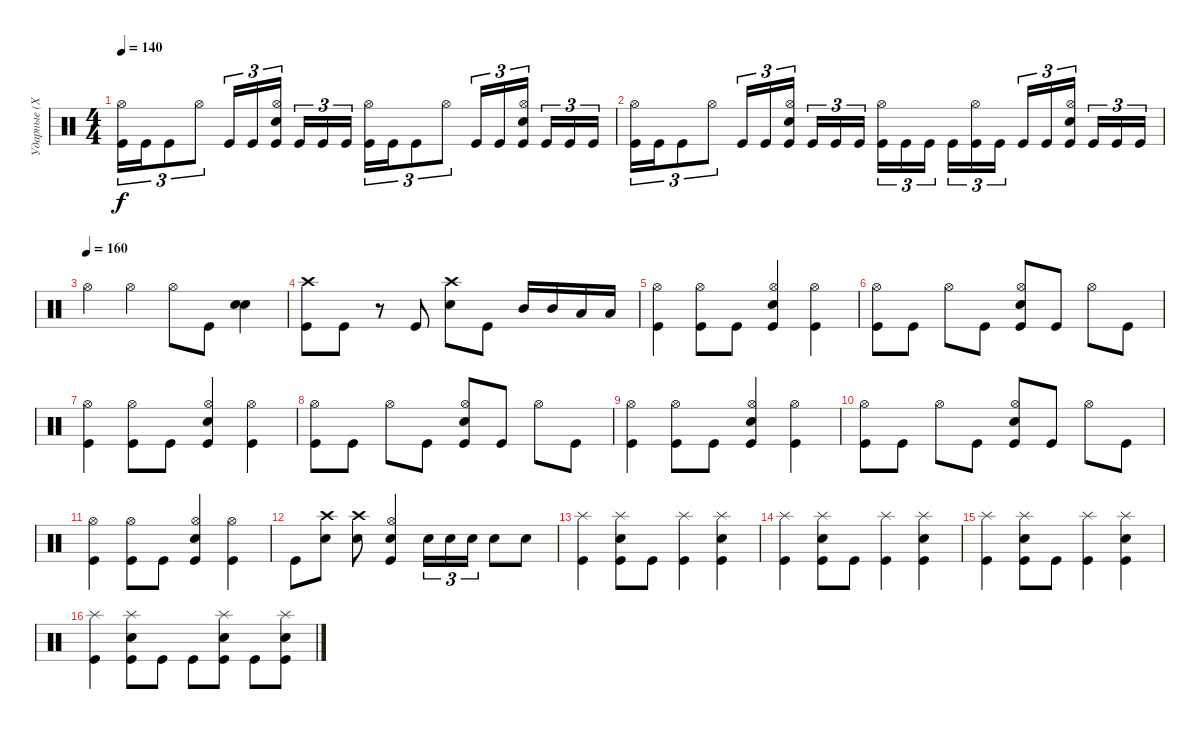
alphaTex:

\track ("Ударные (Хеллхаммер)" "Ударные (Х") {instrument percussion}
\staff {score}
\articulation defaults
\ts (4 4)
\tempo 140
\clef neutral
\ks c
("Kick (hit)" "Hi-Hat (open)").16{tu (3 2) dy f} "Kick (hit)".16{tu (3 2)} "Kick (hit)".8{tu (3 2)} "Hi-Hat (open)".8{tu (3 2)} "Kick (hit)".16{tu (3 2)} "Kick (hit)".16{tu (3 2)} ("Kick (hit)" "Hi-Hat (open)" "Electric Snare (hit)").16{tu (3 2) beam splitsecondary} "Kick (hit)".16{tu (3 2)} "Kick (hit)".16{tu (3 2)} "Kick (hit)".16{tu (3 2)} ("Kick (hit)" "Hi-Hat (open)").16{tu (3 2)} "Kick (hit)".16{tu (3 2)} "Kick (hit)".8{tu (3 2)} "Hi-Hat (open)".8{tu (3 2)} "Kick (hit)".16{tu (3 2)} "Kick (hit)".16{tu (3 2)} ("Kick (hit)" "Hi-Hat (open)" "Electric Snare (hit)").16{tu (3 2) beam splitsecondary} "Kick (hit)".16{tu (3 2)} "Kick (hit)".16{tu (3 2)} "Kick (hit)".16{tu (3 2)} |
("Kick (hit)" "Hi-Hat (open)").16{tu (3 2)} "Kick (hit)".16{tu (3 2)} "Kick (hit)".8{tu (3 2)} "Hi-Hat (open)".8{tu (3 2)} "Kick (hit)".16{tu (3 2)} "Kick (hit)".16{tu (3 2)} ("Kick (hit)" "Hi-Hat (open)" "Electric Snare (hit)").16{tu (3 2) beam splitsecondary} "Kick (hit)".16{tu (3 2)} "Kick (hit)".16{tu (3 2)} "Kick (hit)".16{tu (3 2)} ("Kick (hit)" "Hi-Hat (open)").16{tu (3 2)} "Kick (hit)".16{tu (3 2)} "Kick (hit)".16{tu (3 2) beam splitsecondary} "Kick (hit)".16{tu (3 2)} ("Kick (hit)" "Hi-Hat (open)").16{tu (3 2)} "Kick (hit)".16{tu (3 2)} "Kick (hit)".16{tu (3 2)} "Kick (hit)".16{tu (3 2)} ("Kick (hit)" "Hi-Hat (open)" "Electric Snare (hit)").16{tu (3 2) beam splitsecondary} "Kick (hit)".16{tu (3 2)} "Kick (hit)".16{tu (3 2)} "Kick (hit)".16{tu (3 2)} |
\tempo (160)
"Hi-Hat (open)".4 "Hi-Hat (open)".4 "Hi-Hat (open)".8 "Kick (hit)".8 ("Electric Snare (hit)" "Electric Snare (hit)").4 |
("Crash high (hit)" "Kick (hit)").8 "Kick (hit)".8 r.8 "Kick (hit)".8 ("Electric Snare (hit)" "Crash high (hit)").8 "Kick (hit)".8 "Mid Tom (hit)".16 "Mid Tom (hit)".16 "Low Tom (hit)".16 "Low Tom (hit)".16 |
("Kick (hit)" "Hi-Hat (open)").4 ("Hi-Hat (open)" "Kick (hit)").8 "Kick (hit)".8 ("Electric Snare (hit)" "Hi-Hat (open)" "Kick (hit)").4 ("Kick (hit)" "Hi-Hat (open)").4 |
("Kick (hit)" "Hi-Hat (open)").8 "Kick (hit)".8 "Hi-Hat (open)".8 "Kick (hit)".8 ("Kick (hit)" "Hi-Hat (open)" "Electric Snare (hit)").8 "Kick (hit)".8 "Hi-Hat (open)".8 "Kick (hit)".8 |
("Kick (hit)" "Hi-Hat (open)").4 ("Hi-Hat (open)" "Kick (hit)").8 "Kick (hit)".8 ("Electric Snare (hit)" "Hi-Hat (open)" "Kick (hit)").4 ("Kick (hit)" "Hi-Hat (open)").4 |
("Kick (hit)" "Hi-Hat (open)").8 "Kick (hit)".8 "Hi-Hat (open)".8 "Kick (hit)".8 ("Kick (hit)" "Hi-Hat (open)" "Electric Snare (hit)").8 "Kick (hit)".8 "Hi-Hat (open)".8 "Kick (hit)".8 |
("Kick (hit)" "Hi-Hat (open)").4 ("Hi-Hat (open)" "Kick (hit)").8 "Kick (hit)".8 ("Electric Snare (hit)" "Hi-Hat (open)" "Kick (hit)").4 ("Kick (hit)" "Hi-Hat (open)").4 |
("Kick (hit)" "Hi-Hat (open)").8 "Kick (hit)".8 "Hi-Hat (open)".8 "Kick (hit)".8 ("Kick (hit)" "Hi-Hat (open)" "Electric Snare (hit)").8 "Kick (hit)".8 "Hi-Hat (open)".8 "Kick (hit)".8 |
("Kick (hit)" "Hi-Hat (open)").4 ("Hi-Hat (open)" "Kick (hit)").8 "Kick (hit)".8 ("Electric Snare (hit)" "Hi-Hat (open)" "Kick (hit)").4 ("Kick (hit)" "Hi-Hat (open)").4 |
"Kick (hit)".8 ("Electric Snare (hit)" "Crash high (hit)").8 ("Electric Snare (hit)" "Crash high (hit)").8 ("Electric Snare (hit)" "Kick (hit)" "Hi-Hat (open)").4 "Electric Snare (hit)".16{tu (3 2)} "Electric Snare (hit)".16{tu (3 2)} "Electric Snare (hit)".16{tu (3 2)} "Electric Snare (hit)".8 "Electric Snare (hit)".8 |
("Kick (hit)" "Splash (hit)").4 ("Kick (hit)" "Splash (hit)" "Electric Snare (hit)").8 "Kick (hit)".8 ("Kick (hit)" "Splash (hit)").4 ("Kick (hit)" "Splash (hit)" "Electric Snare (hit)").4 |
("Kick (hit)" "Splash (hit)").4 ("Kick (hit)" "Splash (hit)" "Electric Snare (hit)").8 "Kick (hit)".8 ("Kick (hit)" "Splash (hit)").4 ("Kick (hit)" "Splash (hit)" "Electric Snare (hit)").4 |
("Kick (hit)" "Splash (hit)").4 ("Kick (hit)" "Splash (hit)" "Electric Snare (hit)").8 "Kick (hit)".8 ("Kick (hit)" "Splash (hit)").4 ("Kick (hit)" "Splash (hit)" "Electric Snare (hit)").4 |
("Kick (hit)" "Splash (hit)").4 ("Kick (hit)" "Splash (hit)" "Electric Snare (hit)").8 "Kick (hit)".8 "Kick (hit)".8 ("Kick (hit)" "Electric Snare (hit)" "Splash (hit)").8 "Kick (hit)".8 ("Kick (hit)" "Electric Snare (hit)" "Splash (hit)").8
